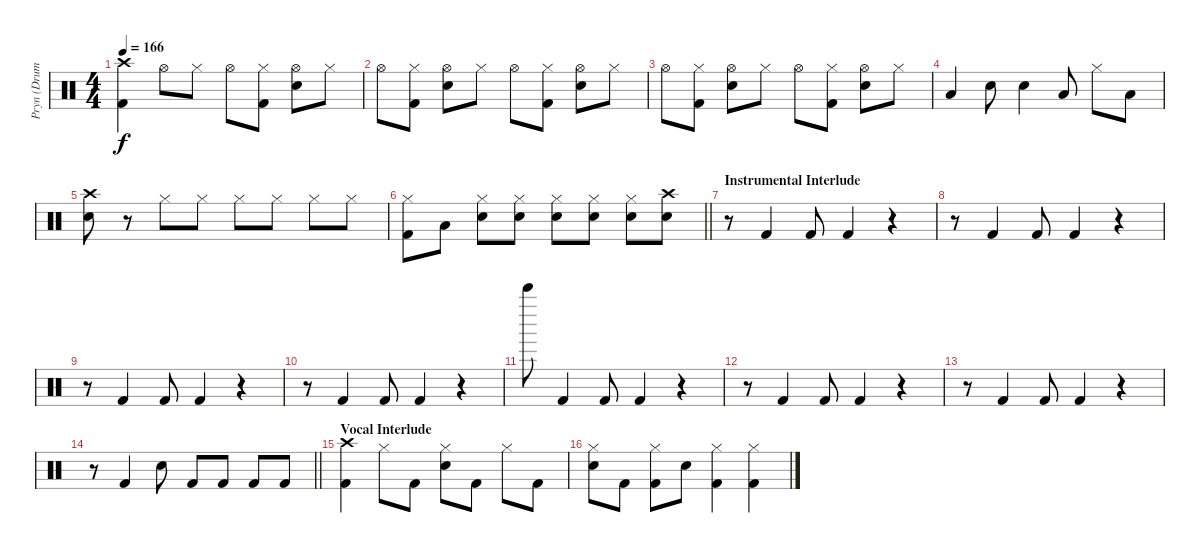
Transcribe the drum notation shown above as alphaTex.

\track ("Pryn (Drums)" "Pryn (Drum") {instrument percussion}
\staff {score}
\articulation defaults
\ts (4 4)
\tempo 166
\clef neutral
\ks c
("Crash high (hit)" "Kick (hit) 2").4{dy f} "Hi-Hat (open)".8 "Hi-Hat (closed)".8 "Hi-Hat (open)".8 ("Hi-Hat (closed)" "Kick (hit) 2").8 ("Hi-Hat (open)" "Snare (hit) 2").8 "Hi-Hat (closed)".8 |
"Hi-Hat (open)".8 ("Hi-Hat (closed)" "Kick (hit) 2").8 ("Hi-Hat (open)" "Snare (hit) 2").8 "Hi-Hat (closed)".8 "Hi-Hat (open)".8 ("Hi-Hat (closed)" "Kick (hit) 2").8 ("Hi-Hat (open)" "Snare (hit) 2").8 "Hi-Hat (closed)".8 |
"Hi-Hat (open)".8 ("Hi-Hat (closed)" "Kick (hit) 2").8 ("Hi-Hat (open)" "Snare (hit) 2").8 "Hi-Hat (closed)".8 "Hi-Hat (open)".8 ("Hi-Hat (closed)" "Kick (hit) 2").8 ("Hi-Hat (open)" "Snare (hit) 2").8 "Hi-Hat (closed)".8 |
"Low Floor Tom (hit)".4 "Snare (hit) 2".8 "Electric Snare (hit)".4 "Low Floor Tom (hit)".8 "Hi-Hat (closed)".8 "Low Floor Tom (hit)".8 |
("Crash high (hit)" "Snare (hit) 2").8 r.8 "Hi-Hat (closed)".8 "Hi-Hat (closed)".8 "Hi-Hat (closed)".8 "Hi-Hat (closed)".8 "Hi-Hat (closed)".8 "Hi-Hat (closed)".8 |
\barLineRight lightlight
("Hi-Hat (closed)" "Kick (hit) 2").8 "Low Floor Tom (hit)".8 ("Hi-Hat (closed)" "Snare (hit) 2").8 ("Hi-Hat (closed)" "Snare (hit) 2").8 ("Hi-Hat (closed)" "Snare (hit) 2").8 ("Hi-Hat (closed)" "Snare (hit) 2").8 ("Hi-Hat (closed)" "Snare (hit) 2").8 ("Crash high (hit)" "Snare (hit) 2").8 |
\section ("" "Instrumental Interlude")
r.8 "Kick (hit) 2".4 "Kick (hit) 2".8 "Kick (hit) 2".4 r.4 |
r.8 "Kick (hit) 2".4 "Kick (hit) 2".8 "Kick (hit) 2".4 r.4 |
r.8 "Kick (hit) 2".4 "Kick (hit) 2".8 "Kick (hit) 2".4 r.4 |
r.8 "Kick (hit) 2".4 "Kick (hit) 2".8 "Kick (hit) 2".4 r.4 |
"Bell Tree (hit)".8 "Kick (hit) 2".4 "Kick (hit) 2".8 "Kick (hit) 2".4 r.4 |
r.8 "Kick (hit) 2".4 "Kick (hit) 2".8 "Kick (hit) 2".4 r.4 |
r.8 "Kick (hit) 2".4 "Kick (hit) 2".8 "Kick (hit) 2".4 r.4 |
\barLineRight lightlight
r.8 "Kick (hit) 2".4 "Snare (hit) 2".8 "Kick (hit) 2".8 "Kick (hit) 2".8 "Kick (hit) 2".8 "Kick (hit) 2".8 |
\section ("" "Vocal Interlude")
("Kick (hit) 2" "Crash high (hit)").4 "Hi-Hat (closed)".8 "Kick (hit) 2".8 ("Snare (hit) 2" "Hi-Hat (closed)").8 "Kick (hit) 2".8 "Hi-Hat (closed)".8 "Kick (hit) 2".8 |
("Snare (hit) 2" "Hi-Hat (closed)").8 "Kick (hit) 2".8 ("Kick (hit) 2" "Hi-Hat (closed)").8 "Snare (hit) 2".8 ("Kick (hit) 2" "Hi-Hat (closed)").4 ("Kick (hit) 2" "Hi-Hat (closed)").4
